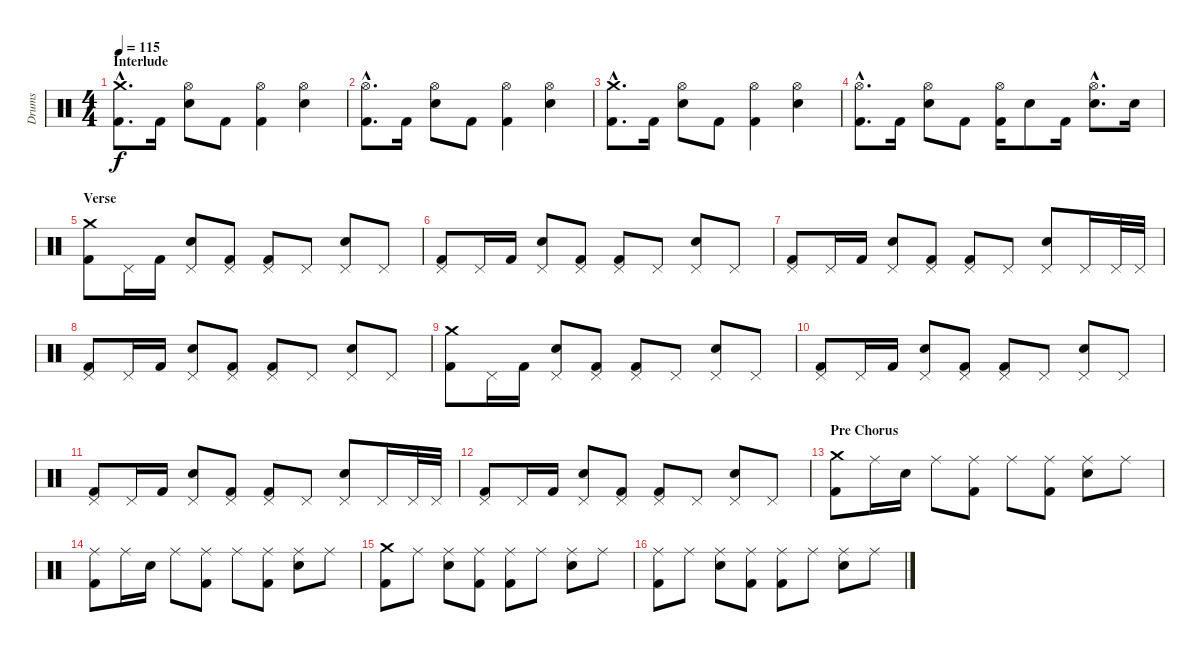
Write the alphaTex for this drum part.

\track ("Drums" "Drums") {instrument percussion}
\staff {score}
\articulation defaults
\ts (4 4)
\section ("" "Interlude")
\tempo 115
\clef neutral
\ks c
("Crash medium (hit)"{hac} "Kick (hit) 2"{hac}).8{d dy f} "Kick (hit) 2".16 ("Hi-Hat (open)" "Electric Snare (hit)").8 "Kick (hit) 2".8 ("Hi-Hat (open)" "Kick (hit) 2").4 ("Hi-Hat (open)" "Electric Snare (hit)").4 |
("Hi-Hat (open)"{hac} "Kick (hit) 2"{hac}).8{d} "Kick (hit) 2".16 ("Hi-Hat (open)" "Electric Snare (hit)").8 "Kick (hit) 2".8 ("Hi-Hat (open)" "Kick (hit) 2").4 ("Hi-Hat (open)" "Electric Snare (hit)").4 |
("Crash medium (hit)"{hac} "Kick (hit) 2"{hac}).8{d} "Kick (hit) 2".16 ("Hi-Hat (open)" "Electric Snare (hit)").8 "Kick (hit) 2".8 ("Hi-Hat (open)" "Kick (hit) 2").4 ("Hi-Hat (open)" "Electric Snare (hit)").4 |
("Hi-Hat (open)"{hac} "Kick (hit) 2"{hac}).8{d} "Kick (hit) 2".16 ("Hi-Hat (open)" "Electric Snare (hit)").8 "Kick (hit) 2".8 ("Hi-Hat (open)" "Kick (hit) 2").16 "Electric Snare (hit)".8 "Kick (hit) 2".16 ("Hi-Hat (open)"{hac} "Electric Snare (hit)"{hac}).8{d} "Electric Snare (hit)".16 |
\section ("" "Verse")
("Crash medium (hit)" "Kick (hit) 2").8 "Pedal Hi-Hat (hit)".16 "Kick (hit) 2".16 ("Pedal Hi-Hat (hit)" "Electric Snare (hit)").8 ("Pedal Hi-Hat (hit)" "Kick (hit) 2").8 ("Pedal Hi-Hat (hit)" "Kick (hit) 2").8 "Pedal Hi-Hat (hit)".8 ("Pedal Hi-Hat (hit)" "Electric Snare (hit)").8 "Pedal Hi-Hat (hit)".8 |
("Pedal Hi-Hat (hit)" "Kick (hit) 2").8 "Pedal Hi-Hat (hit)".16 "Kick (hit) 2".16 ("Pedal Hi-Hat (hit)" "Electric Snare (hit)").8 ("Pedal Hi-Hat (hit)" "Kick (hit) 2").8 ("Pedal Hi-Hat (hit)" "Kick (hit) 2").8 "Pedal Hi-Hat (hit)".8 ("Pedal Hi-Hat (hit)" "Electric Snare (hit)").8 "Pedal Hi-Hat (hit)".8 |
("Pedal Hi-Hat (hit)" "Kick (hit) 2").8 "Pedal Hi-Hat (hit)".16 "Kick (hit) 2".16 ("Pedal Hi-Hat (hit)" "Electric Snare (hit)").8 ("Pedal Hi-Hat (hit)" "Kick (hit) 2").8 ("Pedal Hi-Hat (hit)" "Kick (hit) 2").8 "Pedal Hi-Hat (hit)".8 ("Pedal Hi-Hat (hit)" "Electric Snare (hit)").8 "Pedal Hi-Hat (hit)".16 "Pedal Hi-Hat (hit)".32 "Pedal Hi-Hat (hit)".32 |
("Pedal Hi-Hat (hit)" "Kick (hit) 2").8 "Pedal Hi-Hat (hit)".16 "Kick (hit) 2".16 ("Pedal Hi-Hat (hit)" "Electric Snare (hit)").8 ("Pedal Hi-Hat (hit)" "Kick (hit) 2").8 ("Pedal Hi-Hat (hit)" "Kick (hit) 2").8 "Pedal Hi-Hat (hit)".8 ("Pedal Hi-Hat (hit)" "Electric Snare (hit)").8 "Pedal Hi-Hat (hit)".8 |
("Crash medium (hit)" "Kick (hit) 2").8 "Pedal Hi-Hat (hit)".16 "Kick (hit) 2".16 ("Pedal Hi-Hat (hit)" "Electric Snare (hit)").8 ("Pedal Hi-Hat (hit)" "Kick (hit) 2").8 ("Pedal Hi-Hat (hit)" "Kick (hit) 2").8 "Pedal Hi-Hat (hit)".8 ("Pedal Hi-Hat (hit)" "Electric Snare (hit)").8 "Pedal Hi-Hat (hit)".8 |
("Pedal Hi-Hat (hit)" "Kick (hit) 2").8 "Pedal Hi-Hat (hit)".16 "Kick (hit) 2".16 ("Pedal Hi-Hat (hit)" "Electric Snare (hit)").8 ("Pedal Hi-Hat (hit)" "Kick (hit) 2").8 ("Pedal Hi-Hat (hit)" "Kick (hit) 2").8 "Pedal Hi-Hat (hit)".8 ("Pedal Hi-Hat (hit)" "Electric Snare (hit)").8 "Pedal Hi-Hat (hit)".8 |
("Pedal Hi-Hat (hit)" "Kick (hit) 2").8 "Pedal Hi-Hat (hit)".16 "Kick (hit) 2".16 ("Pedal Hi-Hat (hit)" "Electric Snare (hit)").8 ("Pedal Hi-Hat (hit)" "Kick (hit) 2").8 ("Pedal Hi-Hat (hit)" "Kick (hit) 2").8 "Pedal Hi-Hat (hit)".8 ("Pedal Hi-Hat (hit)" "Electric Snare (hit)").8 "Pedal Hi-Hat (hit)".16 "Pedal Hi-Hat (hit)".32 "Pedal Hi-Hat (hit)".32 |
("Pedal Hi-Hat (hit)" "Kick (hit) 2").8 "Pedal Hi-Hat (hit)".16 "Kick (hit) 2".16 ("Pedal Hi-Hat (hit)" "Electric Snare (hit)").8 ("Pedal Hi-Hat (hit)" "Kick (hit) 2").8 ("Pedal Hi-Hat (hit)" "Kick (hit) 2").8 "Pedal Hi-Hat (hit)".8 ("Pedal Hi-Hat (hit)" "Electric Snare (hit)").8 "Pedal Hi-Hat (hit)".8 |
\section ("" "Pre Chorus")
("Crash medium (hit)" "Kick (hit) 2").8 "Ride (middle)".16 "Electric Snare (hit)".16 "Ride (middle)".8 ("Ride (middle)" "Kick (hit) 2").8 "Ride (middle)".8 ("Ride (middle)" "Kick (hit) 2").8 ("Ride (middle)" "Electric Snare (hit)").8 "Ride (middle)".8 |
("Ride (middle)" "Kick (hit) 2").8 "Ride (middle)".16 "Electric Snare (hit)".16 "Ride (middle)".8 ("Ride (middle)" "Kick (hit) 2").8 "Ride (middle)".8 ("Ride (middle)" "Kick (hit) 2").8 ("Ride (middle)" "Electric Snare (hit)").8 "Ride (middle)".8 |
("Crash medium (hit)" "Kick (hit) 2").8 "Ride (middle)".8 ("Ride (middle)" "Electric Snare (hit)").8 ("Ride (middle)" "Kick (hit) 2").8 ("Ride (middle)" "Kick (hit) 2").8 "Ride (middle)".8 ("Ride (middle)" "Electric Snare (hit)").8 "Ride (middle)".8 |
("Ride (middle)" "Kick (hit) 2").8 "Ride (middle)".8 ("Ride (middle)" "Electric Snare (hit)").8 ("Ride (middle)" "Kick (hit) 2").8 ("Ride (middle)" "Kick (hit) 2").8 "Ride (middle)".8 ("Ride (middle)" "Electric Snare (hit)").8 "Ride (middle)".8
